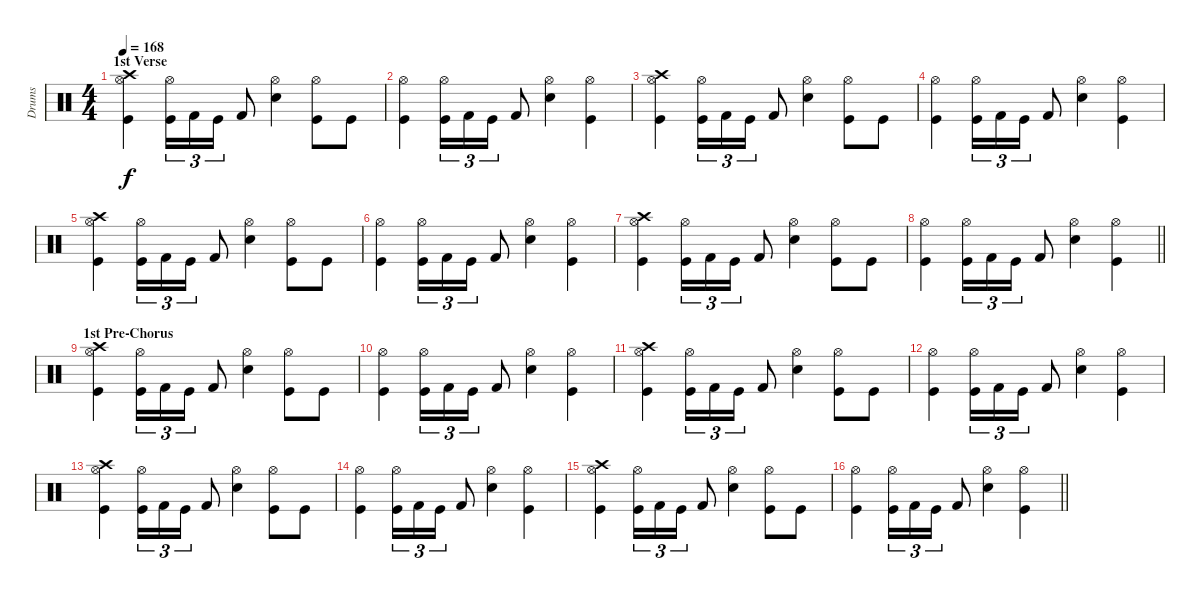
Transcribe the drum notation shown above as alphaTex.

\track ("Drums" "Drums") {instrument percussion}
\staff {score}
\articulation defaults
\ts (4 4)
\section ("" "1st Verse")
\tempo 168
\clef neutral
\ks c
("Crash high (hit)" "Hi-Hat (open)" "Kick (hit)").4{dy f} ("Hi-Hat (open)" "Kick (hit)").16{tu (3 2)} "Kick (hit) 2".16{tu (3 2)} "Kick (hit)".16{tu (3 2)} "Kick (hit) 2".8 ("Hi-Hat (open)" "Snare (hit) 2").4 ("Hi-Hat (open)" "Kick (hit)").8 "Kick (hit)".8 |
("Hi-Hat (open)" "Kick (hit)").4 ("Hi-Hat (open)" "Kick (hit)").16{tu (3 2)} "Kick (hit) 2".16{tu (3 2)} "Kick (hit)".16{tu (3 2)} "Kick (hit) 2".8 ("Hi-Hat (open)" "Snare (hit) 2").4 ("Hi-Hat (open)" "Kick (hit)").4 |
("Crash high (hit)" "Hi-Hat (open)" "Kick (hit)").4 ("Hi-Hat (open)" "Kick (hit)").16{tu (3 2)} "Kick (hit) 2".16{tu (3 2)} "Kick (hit)".16{tu (3 2)} "Kick (hit) 2".8 ("Hi-Hat (open)" "Snare (hit) 2").4 ("Hi-Hat (open)" "Kick (hit)").8 "Kick (hit)".8 |
("Hi-Hat (open)" "Kick (hit)").4 ("Hi-Hat (open)" "Kick (hit)").16{tu (3 2)} "Kick (hit) 2".16{tu (3 2)} "Kick (hit)".16{tu (3 2)} "Kick (hit) 2".8 ("Hi-Hat (open)" "Snare (hit) 2").4 ("Hi-Hat (open)" "Kick (hit)").4 |
("Crash high (hit)" "Hi-Hat (open)" "Kick (hit)").4 ("Hi-Hat (open)" "Kick (hit)").16{tu (3 2)} "Kick (hit) 2".16{tu (3 2)} "Kick (hit)".16{tu (3 2)} "Kick (hit) 2".8 ("Hi-Hat (open)" "Snare (hit) 2").4 ("Hi-Hat (open)" "Kick (hit)").8 "Kick (hit)".8 |
("Hi-Hat (open)" "Kick (hit)").4 ("Hi-Hat (open)" "Kick (hit)").16{tu (3 2)} "Kick (hit) 2".16{tu (3 2)} "Kick (hit)".16{tu (3 2)} "Kick (hit) 2".8 ("Hi-Hat (open)" "Snare (hit) 2").4 ("Hi-Hat (open)" "Kick (hit)").4 |
("Crash high (hit)" "Hi-Hat (open)" "Kick (hit)").4 ("Hi-Hat (open)" "Kick (hit)").16{tu (3 2)} "Kick (hit) 2".16{tu (3 2)} "Kick (hit)".16{tu (3 2)} "Kick (hit) 2".8 ("Hi-Hat (open)" "Snare (hit) 2").4 ("Hi-Hat (open)" "Kick (hit)").8 "Kick (hit)".8 |
\barLineRight lightlight
("Hi-Hat (open)" "Kick (hit)").4 ("Hi-Hat (open)" "Kick (hit)").16{tu (3 2)} "Kick (hit) 2".16{tu (3 2)} "Kick (hit)".16{tu (3 2)} "Kick (hit) 2".8 ("Hi-Hat (open)" "Snare (hit) 2").4 ("Hi-Hat (open)" "Kick (hit)").4 |
\section ("" "1st Pre-Chorus")
("Crash high (hit)" "Hi-Hat (open)" "Kick (hit)").4 ("Hi-Hat (open)" "Kick (hit)").16{tu (3 2)} "Kick (hit) 2".16{tu (3 2)} "Kick (hit)".16{tu (3 2)} "Kick (hit) 2".8 ("Hi-Hat (open)" "Snare (hit) 2").4 ("Hi-Hat (open)" "Kick (hit)").8 "Kick (hit)".8 |
("Hi-Hat (open)" "Kick (hit)").4 ("Hi-Hat (open)" "Kick (hit)").16{tu (3 2)} "Kick (hit) 2".16{tu (3 2)} "Kick (hit)".16{tu (3 2)} "Kick (hit) 2".8 ("Hi-Hat (open)" "Snare (hit) 2").4 ("Hi-Hat (open)" "Kick (hit)").4 |
("Crash high (hit)" "Hi-Hat (open)" "Kick (hit)").4 ("Hi-Hat (open)" "Kick (hit)").16{tu (3 2)} "Kick (hit) 2".16{tu (3 2)} "Kick (hit)".16{tu (3 2)} "Kick (hit) 2".8 ("Hi-Hat (open)" "Snare (hit) 2").4 ("Hi-Hat (open)" "Kick (hit)").8 "Kick (hit)".8 |
("Hi-Hat (open)" "Kick (hit)").4 ("Hi-Hat (open)" "Kick (hit)").16{tu (3 2)} "Kick (hit) 2".16{tu (3 2)} "Kick (hit)".16{tu (3 2)} "Kick (hit) 2".8 ("Hi-Hat (open)" "Snare (hit) 2").4 ("Hi-Hat (open)" "Kick (hit)").4 |
("Crash high (hit)" "Hi-Hat (open)" "Kick (hit)").4 ("Hi-Hat (open)" "Kick (hit)").16{tu (3 2)} "Kick (hit) 2".16{tu (3 2)} "Kick (hit)".16{tu (3 2)} "Kick (hit) 2".8 ("Hi-Hat (open)" "Snare (hit) 2").4 ("Hi-Hat (open)" "Kick (hit)").8 "Kick (hit)".8 |
("Hi-Hat (open)" "Kick (hit)").4 ("Hi-Hat (open)" "Kick (hit)").16{tu (3 2)} "Kick (hit) 2".16{tu (3 2)} "Kick (hit)".16{tu (3 2)} "Kick (hit) 2".8 ("Hi-Hat (open)" "Snare (hit) 2").4 ("Hi-Hat (open)" "Kick (hit)").4 |
("Crash high (hit)" "Hi-Hat (open)" "Kick (hit)").4 ("Hi-Hat (open)" "Kick (hit)").16{tu (3 2)} "Kick (hit) 2".16{tu (3 2)} "Kick (hit)".16{tu (3 2)} "Kick (hit) 2".8 ("Hi-Hat (open)" "Snare (hit) 2").4 ("Hi-Hat (open)" "Kick (hit)").8 "Kick (hit)".8 |
\barLineRight lightlight
("Hi-Hat (open)" "Kick (hit)").4 ("Hi-Hat (open)" "Kick (hit)").16{tu (3 2)} "Kick (hit) 2".16{tu (3 2)} "Kick (hit)".16{tu (3 2)} "Kick (hit) 2".8 ("Hi-Hat (open)" "Snare (hit) 2").4 ("Hi-Hat (open)" "Kick (hit)").4
